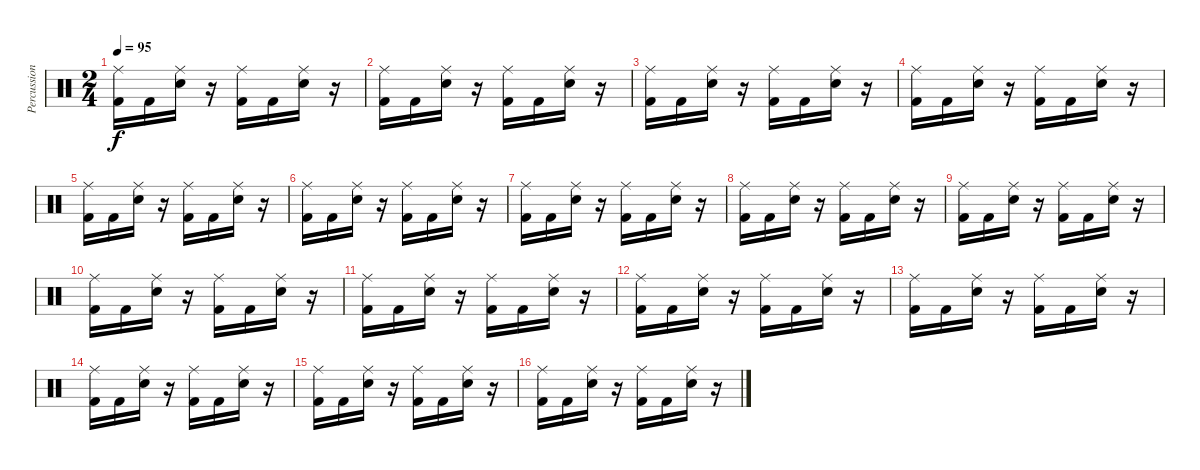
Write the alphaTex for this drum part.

\track ("Percussion" "Percussion") {instrument percussion}
\staff {score}
\articulation defaults
\ts (2 4)
\tempo 95
\clef neutral
\ks c
("Ride (middle)" "Kick (hit) 2").16{dy f} "Kick (hit) 2".16 ("Ride (middle)" "Electric Snare (hit)").16 r.16 ("Ride (middle)" "Kick (hit) 2").16 "Kick (hit) 2".16 ("Ride (middle)" "Electric Snare (hit)").16 r.16 |
("Ride (middle)" "Kick (hit) 2").16 "Kick (hit) 2".16 ("Ride (middle)" "Electric Snare (hit)").16 r.16 ("Ride (middle)" "Kick (hit) 2").16 "Kick (hit) 2".16 ("Ride (middle)" "Electric Snare (hit)").16 r.16 |
("Ride (middle)" "Kick (hit) 2").16 "Kick (hit) 2".16 ("Ride (middle)" "Electric Snare (hit)").16 r.16 ("Ride (middle)" "Kick (hit) 2").16 "Kick (hit) 2".16 ("Ride (middle)" "Electric Snare (hit)").16 r.16 |
("Ride (middle)" "Kick (hit) 2").16 "Kick (hit) 2".16 ("Ride (middle)" "Electric Snare (hit)").16 r.16 ("Ride (middle)" "Kick (hit) 2").16 "Kick (hit) 2".16 ("Ride (middle)" "Electric Snare (hit)").16 r.16 |
("Ride (middle)" "Kick (hit) 2").16 "Kick (hit) 2".16 ("Ride (middle)" "Electric Snare (hit)").16 r.16 ("Ride (middle)" "Kick (hit) 2").16 "Kick (hit) 2".16 ("Ride (middle)" "Electric Snare (hit)").16 r.16 |
("Ride (middle)" "Kick (hit) 2").16 "Kick (hit) 2".16 ("Ride (middle)" "Electric Snare (hit)").16 r.16 ("Ride (middle)" "Kick (hit) 2").16 "Kick (hit) 2".16 ("Ride (middle)" "Electric Snare (hit)").16 r.16 |
("Ride (middle)" "Kick (hit) 2").16 "Kick (hit) 2".16 ("Ride (middle)" "Electric Snare (hit)").16 r.16 ("Ride (middle)" "Kick (hit) 2").16 "Kick (hit) 2".16 ("Ride (middle)" "Electric Snare (hit)").16 r.16 |
("Ride (middle)" "Kick (hit) 2").16 "Kick (hit) 2".16 ("Ride (middle)" "Electric Snare (hit)").16 r.16 ("Ride (middle)" "Kick (hit) 2").16 "Kick (hit) 2".16 ("Ride (middle)" "Electric Snare (hit)").16 r.16 |
("Ride (middle)" "Kick (hit) 2").16 "Kick (hit) 2".16 ("Ride (middle)" "Electric Snare (hit)").16 r.16 ("Ride (middle)" "Kick (hit) 2").16 "Kick (hit) 2".16 ("Ride (middle)" "Electric Snare (hit)").16 r.16 |
("Ride (middle)" "Kick (hit) 2").16 "Kick (hit) 2".16 ("Ride (middle)" "Electric Snare (hit)").16 r.16 ("Ride (middle)" "Kick (hit) 2").16 "Kick (hit) 2".16 ("Ride (middle)" "Electric Snare (hit)").16 r.16 |
("Ride (middle)" "Kick (hit) 2").16 "Kick (hit) 2".16 ("Ride (middle)" "Electric Snare (hit)").16 r.16 ("Ride (middle)" "Kick (hit) 2").16 "Kick (hit) 2".16 ("Ride (middle)" "Electric Snare (hit)").16 r.16 |
("Ride (middle)" "Kick (hit) 2").16 "Kick (hit) 2".16 ("Ride (middle)" "Electric Snare (hit)").16 r.16 ("Ride (middle)" "Kick (hit) 2").16 "Kick (hit) 2".16 ("Ride (middle)" "Electric Snare (hit)").16 r.16 |
("Ride (middle)" "Kick (hit) 2").16 "Kick (hit) 2".16 ("Ride (middle)" "Electric Snare (hit)").16 r.16 ("Ride (middle)" "Kick (hit) 2").16 "Kick (hit) 2".16 ("Ride (middle)" "Electric Snare (hit)").16 r.16 |
("Ride (middle)" "Kick (hit) 2").16 "Kick (hit) 2".16 ("Ride (middle)" "Electric Snare (hit)").16 r.16 ("Ride (middle)" "Kick (hit) 2").16 "Kick (hit) 2".16 ("Ride (middle)" "Electric Snare (hit)").16 r.16 |
("Ride (middle)" "Kick (hit) 2").16 "Kick (hit) 2".16 ("Ride (middle)" "Electric Snare (hit)").16 r.16 ("Ride (middle)" "Kick (hit) 2").16 "Kick (hit) 2".16 ("Ride (middle)" "Electric Snare (hit)").16 r.16 |
("Ride (middle)" "Kick (hit) 2").16 "Kick (hit) 2".16 ("Ride (middle)" "Electric Snare (hit)").16 r.16 ("Ride (middle)" "Kick (hit) 2").16 "Kick (hit) 2".16 ("Ride (middle)" "Electric Snare (hit)").16 r.16
